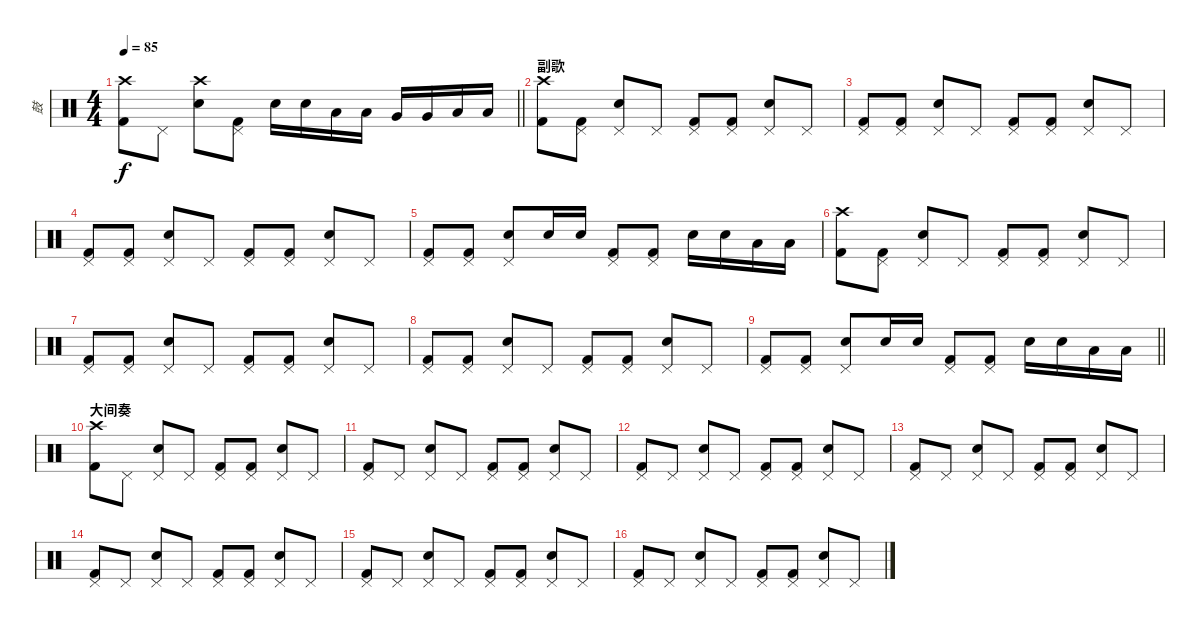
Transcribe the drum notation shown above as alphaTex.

\track ("鼓" "鼓") {instrument percussion}
\staff {score}
\articulation defaults
\ts (4 4)
\tempo 85
\clef neutral
\barLineRight lightlight
\ks c
("Crash high (hit)" "Kick (hit) 2").8{dy f} "Pedal Hi-Hat (hit)".8 ("Crash high (hit)" "Electric Snare (hit)").8 ("Pedal Hi-Hat (hit)" "Kick (hit) 2").8 "Electric Snare (hit)".16 "Electric Snare (hit)".16 "Low Tom (hit)".16 "Low Tom (hit)".16 "Very Low Tom (hit)".16 "Very Low Tom (hit)".16 "Low Floor Tom (hit)".16 "Low Floor Tom (hit)".16 |
\section ("" "副歌")
("Crash high (hit)" "Kick (hit) 2").8 ("Pedal Hi-Hat (hit)" "Kick (hit) 2").8 ("Pedal Hi-Hat (hit)" "Electric Snare (hit)").8 "Pedal Hi-Hat (hit)".8 ("Pedal Hi-Hat (hit)" "Kick (hit) 2").8 ("Pedal Hi-Hat (hit)" "Kick (hit) 2").8 ("Pedal Hi-Hat (hit)" "Electric Snare (hit)").8 "Pedal Hi-Hat (hit)".8 |
("Pedal Hi-Hat (hit)" "Kick (hit) 2").8 ("Pedal Hi-Hat (hit)" "Kick (hit) 2").8 ("Pedal Hi-Hat (hit)" "Electric Snare (hit)").8 "Pedal Hi-Hat (hit)".8 ("Pedal Hi-Hat (hit)" "Kick (hit) 2").8 ("Pedal Hi-Hat (hit)" "Kick (hit) 2").8 ("Pedal Hi-Hat (hit)" "Electric Snare (hit)").8 "Pedal Hi-Hat (hit)".8 |
("Pedal Hi-Hat (hit)" "Kick (hit) 2").8 ("Pedal Hi-Hat (hit)" "Kick (hit) 2").8 ("Pedal Hi-Hat (hit)" "Electric Snare (hit)").8 "Pedal Hi-Hat (hit)".8 ("Pedal Hi-Hat (hit)" "Kick (hit) 2").8 ("Pedal Hi-Hat (hit)" "Kick (hit) 2").8 ("Pedal Hi-Hat (hit)" "Electric Snare (hit)").8 "Pedal Hi-Hat (hit)".8 |
("Pedal Hi-Hat (hit)" "Kick (hit) 2").8 ("Pedal Hi-Hat (hit)" "Kick (hit) 2").8 ("Pedal Hi-Hat (hit)" "Electric Snare (hit)").8 "Electric Snare (hit)".16 "Electric Snare (hit)".16 ("Pedal Hi-Hat (hit)" "Kick (hit) 2").8 ("Pedal Hi-Hat (hit)" "Kick (hit) 2").8 "Electric Snare (hit)".16 "Electric Snare (hit)".16 "Low Floor Tom (hit)".16 "Low Floor Tom (hit)".16 |
("Crash high (hit)" "Kick (hit) 2").8 ("Pedal Hi-Hat (hit)" "Kick (hit) 2").8 ("Pedal Hi-Hat (hit)" "Electric Snare (hit)").8 "Pedal Hi-Hat (hit)".8 ("Pedal Hi-Hat (hit)" "Kick (hit) 2").8 ("Pedal Hi-Hat (hit)" "Kick (hit) 2").8 ("Pedal Hi-Hat (hit)" "Electric Snare (hit)").8 "Pedal Hi-Hat (hit)".8 |
("Pedal Hi-Hat (hit)" "Kick (hit) 2").8 ("Pedal Hi-Hat (hit)" "Kick (hit) 2").8 ("Pedal Hi-Hat (hit)" "Electric Snare (hit)").8 "Pedal Hi-Hat (hit)".8 ("Pedal Hi-Hat (hit)" "Kick (hit) 2").8 ("Pedal Hi-Hat (hit)" "Kick (hit) 2").8 ("Pedal Hi-Hat (hit)" "Electric Snare (hit)").8 "Pedal Hi-Hat (hit)".8 |
("Pedal Hi-Hat (hit)" "Kick (hit) 2").8 ("Pedal Hi-Hat (hit)" "Kick (hit) 2").8 ("Pedal Hi-Hat (hit)" "Electric Snare (hit)").8 "Pedal Hi-Hat (hit)".8 ("Pedal Hi-Hat (hit)" "Kick (hit) 2").8 ("Pedal Hi-Hat (hit)" "Kick (hit) 2").8 ("Pedal Hi-Hat (hit)" "Electric Snare (hit)").8 "Pedal Hi-Hat (hit)".8 |
\barLineRight lightlight
("Pedal Hi-Hat (hit)" "Kick (hit) 2").8 ("Pedal Hi-Hat (hit)" "Kick (hit) 2").8 ("Pedal Hi-Hat (hit)" "Electric Snare (hit)").8 "Electric Snare (hit)".16 "Electric Snare (hit)".16 ("Pedal Hi-Hat (hit)" "Kick (hit) 2").8 ("Pedal Hi-Hat (hit)" "Kick (hit) 2").8 "Electric Snare (hit)".16 "Electric Snare (hit)".16 "Low Floor Tom (hit)".16 "Low Floor Tom (hit)".16 |
\section ("" "大间奏")
("Crash high (hit)" "Kick (hit) 2").8 "Pedal Hi-Hat (hit)".8 ("Pedal Hi-Hat (hit)" "Electric Snare (hit)").8 "Pedal Hi-Hat (hit)".8 ("Pedal Hi-Hat (hit)" "Kick (hit) 2").8 ("Pedal Hi-Hat (hit)" "Kick (hit) 2").8 ("Pedal Hi-Hat (hit)" "Electric Snare (hit)").8 "Pedal Hi-Hat (hit)".8 |
("Pedal Hi-Hat (hit)" "Kick (hit) 2").8 "Pedal Hi-Hat (hit)".8 ("Pedal Hi-Hat (hit)" "Electric Snare (hit)").8 "Pedal Hi-Hat (hit)".8 ("Pedal Hi-Hat (hit)" "Kick (hit) 2").8 ("Pedal Hi-Hat (hit)" "Kick (hit) 2").8 ("Pedal Hi-Hat (hit)" "Electric Snare (hit)").8 "Pedal Hi-Hat (hit)".8 |
("Pedal Hi-Hat (hit)" "Kick (hit) 2").8 "Pedal Hi-Hat (hit)".8 ("Pedal Hi-Hat (hit)" "Electric Snare (hit)").8 "Pedal Hi-Hat (hit)".8 ("Pedal Hi-Hat (hit)" "Kick (hit) 2").8 ("Pedal Hi-Hat (hit)" "Kick (hit) 2").8 ("Pedal Hi-Hat (hit)" "Electric Snare (hit)").8 "Pedal Hi-Hat (hit)".8 |
("Pedal Hi-Hat (hit)" "Kick (hit) 2").8 "Pedal Hi-Hat (hit)".8 ("Pedal Hi-Hat (hit)" "Electric Snare (hit)").8 "Pedal Hi-Hat (hit)".8 ("Pedal Hi-Hat (hit)" "Kick (hit) 2").8 ("Pedal Hi-Hat (hit)" "Kick (hit) 2").8 ("Pedal Hi-Hat (hit)" "Electric Snare (hit)").8 "Pedal Hi-Hat (hit)".8 |
("Pedal Hi-Hat (hit)" "Kick (hit) 2").8 "Pedal Hi-Hat (hit)".8 ("Pedal Hi-Hat (hit)" "Electric Snare (hit)").8 "Pedal Hi-Hat (hit)".8 ("Pedal Hi-Hat (hit)" "Kick (hit) 2").8 ("Pedal Hi-Hat (hit)" "Kick (hit) 2").8 ("Pedal Hi-Hat (hit)" "Electric Snare (hit)").8 "Pedal Hi-Hat (hit)".8 |
("Pedal Hi-Hat (hit)" "Kick (hit) 2").8 "Pedal Hi-Hat (hit)".8 ("Pedal Hi-Hat (hit)" "Electric Snare (hit)").8 "Pedal Hi-Hat (hit)".8 ("Pedal Hi-Hat (hit)" "Kick (hit) 2").8 ("Pedal Hi-Hat (hit)" "Kick (hit) 2").8 ("Pedal Hi-Hat (hit)" "Electric Snare (hit)").8 "Pedal Hi-Hat (hit)".8 |
("Pedal Hi-Hat (hit)" "Kick (hit) 2").8 "Pedal Hi-Hat (hit)".8 ("Pedal Hi-Hat (hit)" "Electric Snare (hit)").8 "Pedal Hi-Hat (hit)".8 ("Pedal Hi-Hat (hit)" "Kick (hit) 2").8 ("Pedal Hi-Hat (hit)" "Kick (hit) 2").8 ("Pedal Hi-Hat (hit)" "Electric Snare (hit)").8 "Pedal Hi-Hat (hit)".8
